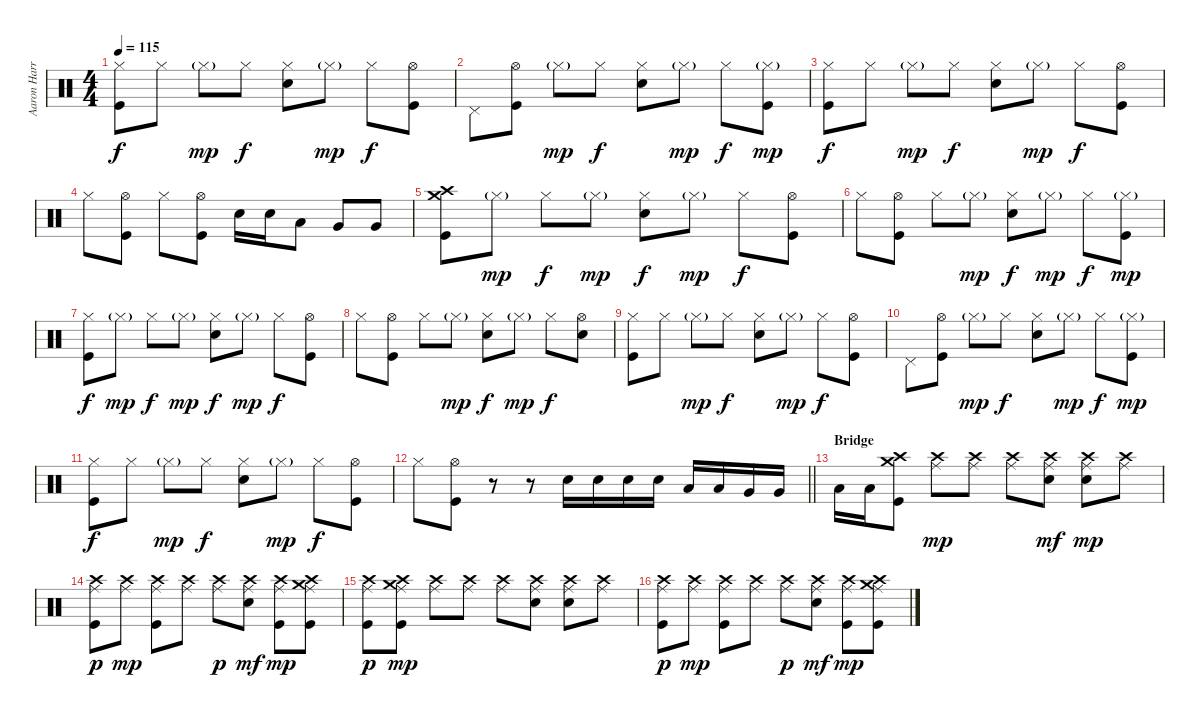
\track ("Aaron Harris" "Aaron Harr") {instrument percussion}
\staff {score}
\articulation defaults
\ts (4 4)
\tempo 115
\clef neutral
\ks c
("Hi-Hat (closed)" "Kick (hit)").8{dy f} "Hi-Hat (closed)".8 "Hi-Hat (closed)"{g}.8{dy mp} "Hi-Hat (closed)".8{dy f} ("Hi-Hat (closed)" "Electric Snare (hit)").8 "Hi-Hat (closed)"{g}.8{dy mp} "Hi-Hat (closed)".8{dy f} ("Hi-Hat (open)" "Kick (hit)").8 |
"Pedal Hi-Hat (hit)".8 ("Hi-Hat (open)" "Kick (hit)").8 "Hi-Hat (closed)"{g}.8{dy mp} "Hi-Hat (closed)".8{dy f} ("Hi-Hat (closed)" "Electric Snare (hit)").8 "Hi-Hat (closed)"{g}.8{dy mp} "Hi-Hat (closed)".8{dy f} ("Hi-Hat (closed)"{g} "Kick (hit)").8{dy mp} |
("Hi-Hat (closed)" "Kick (hit)").8{dy f} "Hi-Hat (closed)".8 "Hi-Hat (closed)"{g}.8{dy mp} "Hi-Hat (closed)".8{dy f} ("Hi-Hat (closed)" "Electric Snare (hit)").8 "Hi-Hat (closed)"{g}.8{dy mp} "Hi-Hat (closed)".8{dy f} ("Hi-Hat (open)" "Kick (hit)").8 |
"Hi-Hat (closed)".8 ("Hi-Hat (open)" "Kick (hit)").8 "Hi-Hat (closed)".8 ("Hi-Hat (open)" "Kick (hit)").8 "Electric Snare (hit)".16 "Electric Snare (hit)".16 "Low Tom (hit)".8 "Very Low Tom (hit)".8 "Very Low Tom (hit)".8 |
("Crash medium (hit)" "Crash high (hit)" "Kick (hit)").8 "Hi-Hat (closed)"{g}.8{dy mp} "Hi-Hat (closed)".8{dy f} "Hi-Hat (closed)"{g}.8{dy mp} ("Hi-Hat (closed)" "Electric Snare (hit)").8{dy f} "Hi-Hat (closed)"{g}.8{dy mp} "Hi-Hat (closed)".8{dy f} ("Hi-Hat (open)" "Kick (hit)").8 |
"Hi-Hat (closed)".8 ("Hi-Hat (open)" "Kick (hit)").8 "Hi-Hat (closed)".8 "Hi-Hat (closed)"{g}.8{dy mp} ("Hi-Hat (closed)" "Electric Snare (hit)").8{dy f} "Hi-Hat (closed)"{g}.8{dy mp} "Hi-Hat (closed)".8{dy f} ("Hi-Hat (closed)"{g} "Kick (hit)").8{dy mp} |
("Hi-Hat (closed)" "Kick (hit)").8{dy f} "Hi-Hat (closed)"{g}.8{dy mp} "Hi-Hat (closed)".8{dy f} "Hi-Hat (closed)"{g}.8{dy mp} ("Hi-Hat (closed)" "Electric Snare (hit)").8{dy f} "Hi-Hat (closed)"{g}.8{dy mp} "Hi-Hat (closed)".8{dy f} ("Hi-Hat (open)" "Kick (hit)").8 |
"Hi-Hat (closed)".8 ("Hi-Hat (open)" "Kick (hit)").8 "Hi-Hat (closed)".8 "Hi-Hat (closed)"{g}.8{dy mp} ("Hi-Hat (closed)" "Electric Snare (hit)").8{dy f} "Hi-Hat (closed)"{g}.8{dy mp} "Hi-Hat (closed)".8{dy f} ("Hi-Hat (open)" "Electric Snare (hit)").8 |
("Hi-Hat (closed)" "Kick (hit)").8 "Hi-Hat (closed)".8 "Hi-Hat (closed)"{g}.8{dy mp} "Hi-Hat (closed)".8{dy f} ("Hi-Hat (closed)" "Electric Snare (hit)").8 "Hi-Hat (closed)"{g}.8{dy mp} "Hi-Hat (closed)".8{dy f} ("Hi-Hat (open)" "Kick (hit)").8 |
"Pedal Hi-Hat (hit)".8 ("Hi-Hat (open)" "Kick (hit)").8 "Hi-Hat (closed)"{g}.8{dy mp} "Hi-Hat (closed)".8{dy f} ("Hi-Hat (closed)" "Electric Snare (hit)").8 "Hi-Hat (closed)"{g}.8{dy mp} "Hi-Hat (closed)".8{dy f} ("Hi-Hat (closed)"{g} "Kick (hit)").8{dy mp} |
("Hi-Hat (closed)" "Kick (hit)").8{dy f} "Hi-Hat (closed)".8 "Hi-Hat (closed)"{g}.8{dy mp} "Hi-Hat (closed)".8{dy f} ("Hi-Hat (closed)" "Electric Snare (hit)").8 "Hi-Hat (closed)"{g}.8{dy mp} "Hi-Hat (closed)".8{dy f} ("Hi-Hat (open)" "Kick (hit)").8 |
\barLineRight lightlight "Hi-Hat (closed)".8
("Hi-Hat (open)" "Kick (hit)").8 r.8 r.8 "Electric Snare (hit)".16 "Electric Snare (hit)".16 "Electric Snare (hit)".16 "Electric Snare (hit)".16 "Low Tom (hit)".16 "Low Tom (hit)".16 "Very Low Tom (hit)".16 "Very Low Tom (hit)".16 |
\section ("" "Bridge")
"Low Floor Tom (hit)".16 "Low Floor Tom (hit)".16 ("Crash medium (hit)" "Crash high (hit)" "Kick (hit)").8 ("Crash high (hit)" "Ride (middle)").8{dy mp} ("Crash high (hit)" "Ride (middle)").8 ("Crash high (hit)" "Ride (middle)").8 ("Crash high (hit)" "Ride (middle)" "Electric Snare (hit)").8{dy mf} ("Crash high (hit)" "Ride (middle)" "Electric Snare (hit)").8{dy mp} ("Crash high (hit)" "Ride (middle)").8 |
("Crash high (hit)" "Ride (middle)" "Kick (hit)").8{dy p} ("Crash high (hit)" "Ride (middle)").8{dy mp} ("Crash high (hit)" "Ride (middle)" "Kick (hit)").8 ("Crash high (hit)" "Ride (middle)").8 ("Crash high (hit)" "Ride (middle)").8{dy p} ("Crash high (hit)" "Ride (middle)" "Electric Snare (hit)").8{dy mf} ("Crash high (hit)" "Ride (middle)" "Kick (hit)").8{dy mp} ("Crash medium (hit)" "Crash high (hit)" "Ride (middle)" "Kick (hit)").8 |
("Crash high (hit)" "Ride (middle)" "Kick (hit)").8{dy p} ("Crash medium (hit)" "Crash high (hit)" "Ride (middle)" "Kick (hit)").8{dy mp} ("Crash high (hit)" "Ride (middle)").8 ("Crash high (hit)" "Ride (middle)").8 ("Crash high (hit)" "Ride (middle)").8 ("Crash high (hit)" "Ride (middle)" "Electric Snare (hit)").8 ("Crash high (hit)" "Ride (middle)" "Electric Snare (hit)").8 ("Crash high (hit)" "Ride (middle)").8 |
("Crash high (hit)" "Ride (middle)" "Kick (hit)").8{dy p} ("Crash high (hit)" "Ride (middle)").8{dy mp} ("Crash high (hit)" "Ride (middle)" "Kick (hit)").8 ("Crash high (hit)" "Ride (middle)").8 ("Crash high (hit)" "Ride (middle)").8{dy p} ("Crash high (hit)" "Ride (middle)" "Electric Snare (hit)").8{dy mf} ("Crash high (hit)" "Ride (middle)" "Kick (hit)").8{dy mp} ("Crash medium (hit)" "Crash high (hit)" "Ride (middle)" "Kick (hit)").8
